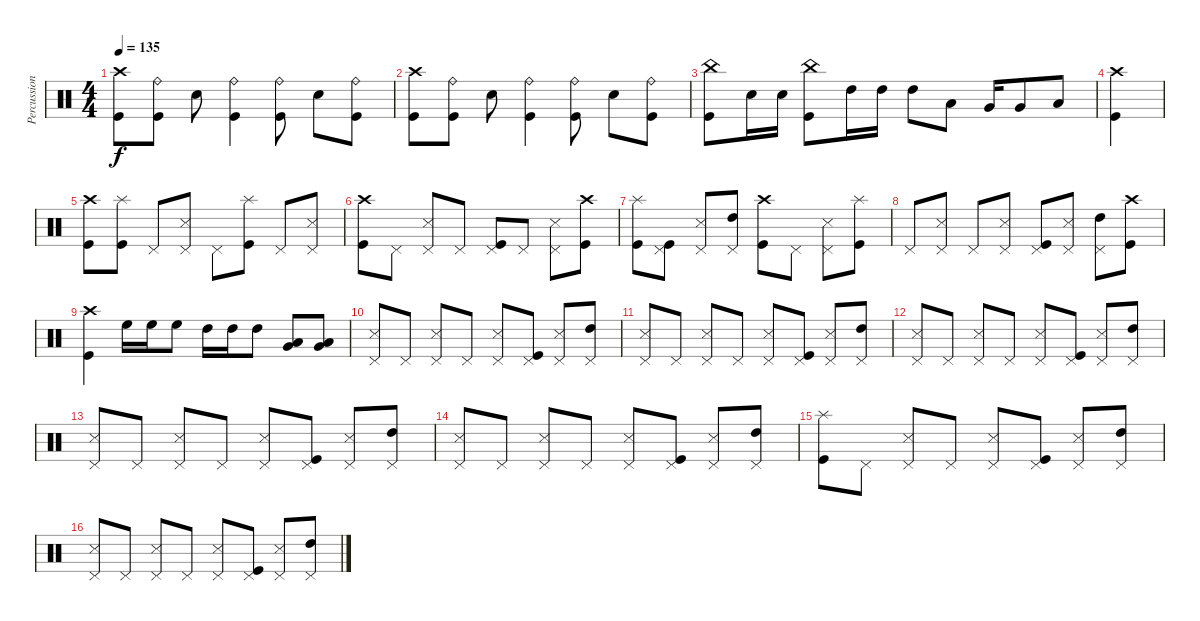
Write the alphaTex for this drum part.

\track ("Percussion" "Percussion") {instrument percussion}
\staff {score}
\articulation defaults
\ts (4 4)
\tempo 135
\clef neutral
\ks c
("Crash high (hit)" "Kick (hit)").8{dy f} ("Ride (bell)" "Kick (hit)").8 "Electric Snare (hit)".8 ("Ride (bell)" "Kick (hit)").4 ("Ride (bell)" "Kick (hit)").8 "Electric Snare (hit)".8 ("Ride (bell)" "Kick (hit)").8 |
("Crash high (hit)" "Kick (hit)").8 ("Ride (bell)" "Kick (hit)").8 "Electric Snare (hit)".8 ("Ride (bell)" "Kick (hit)").4 ("Ride (bell)" "Kick (hit)").8 "Electric Snare (hit)".8 ("Ride (bell)" "Kick (hit)").8 |
("China (hit)" "Kick (hit)").8 "Electric Snare (hit)".16 "Electric Snare (hit)".16 ("China (hit)" "Kick (hit)").8 "High Tom (hit)".16 "High Tom (hit)".16 "High Tom (hit)".8 "Low Tom (hit)".8 "Very Low Tom (hit)".16 "Very Low Tom (hit)".8 "Low Floor Tom (hit)".8 |
("Kick (hit)" "Crash high (hit)").4 |
("Kick (hit)" "Crash high (hit)").8 ("Kick (hit)" "Splash (hit)").8 "Pedal Hi-Hat (hit)".8 ("Snare (side stick) 3" "Pedal Hi-Hat (hit)").8 "Pedal Hi-Hat (hit)".8 ("Splash (hit)" "Kick (hit)").8 "Pedal Hi-Hat (hit)".8 ("Snare (side stick) 3" "Pedal Hi-Hat (hit)").8 |
("Crash high (hit)" "Kick (hit)").8 "Pedal Hi-Hat (hit)".8 ("Snare (side stick) 3" "Pedal Hi-Hat (hit)").8 "Pedal Hi-Hat (hit)".8 ("Kick (hit)" "Pedal Hi-Hat (hit)").8 "Pedal Hi-Hat (hit)".8 ("Snare (side stick) 3" "Pedal Hi-Hat (hit)").8 ("Crash high (hit)" "Kick (hit)").8 |
("Splash (hit)" "Kick (hit)").8 ("Pedal Hi-Hat (hit)" "Kick (hit)").8 ("Pedal Hi-Hat (hit)" "Snare (side stick) 3").8 ("Pedal Hi-Hat (hit)" "High Tom (hit)").8 ("Kick (hit)" "Crash high (hit)").8 "Pedal Hi-Hat (hit)".8 ("Pedal Hi-Hat (hit)" "Snare (side stick) 3").8 ("Kick (hit)" "Splash (hit)").8 |
"Pedal Hi-Hat (hit)".8 ("Pedal Hi-Hat (hit)" "Snare (side stick) 3").8 "Pedal Hi-Hat (hit)".8 ("Pedal Hi-Hat (hit)" "Snare (side stick) 3").8 ("Pedal Hi-Hat (hit)" "Kick (hit)").8 ("Pedal Hi-Hat (hit)" "Snare (side stick) 3").8 ("Pedal Hi-Hat (hit)" "High Tom (hit)").8 ("Kick (hit)" "Crash high (hit)").8 |
("Kick (hit)" "Crash high (hit)").4 "High Floor Tom (hit)".16 "High Floor Tom (hit)".16 "High Floor Tom (hit)".8 "High Tom (hit)".16 "High Tom (hit)".16 "High Tom (hit)".8 ("Very Low Tom (hit)" "Low Floor Tom (hit)").8 ("Very Low Tom (hit)" "Low Floor Tom (hit)").8 |
("Snare (side stick) 3" "Pedal Hi-Hat (hit)").8 "Pedal Hi-Hat (hit)".8 ("Snare (side stick) 3" "Pedal Hi-Hat (hit)").8 "Pedal Hi-Hat (hit)".8 ("Snare (side stick) 3" "Pedal Hi-Hat (hit)").8 ("Kick (hit)" "Pedal Hi-Hat (hit)").8 ("Snare (side stick) 3" "Pedal Hi-Hat (hit)").8 ("High Tom (hit)" "Pedal Hi-Hat (hit)").8 |
("Snare (side stick) 3" "Pedal Hi-Hat (hit)").8 "Pedal Hi-Hat (hit)".8 ("Snare (side stick) 3" "Pedal Hi-Hat (hit)").8 "Pedal Hi-Hat (hit)".8 ("Snare (side stick) 3" "Pedal Hi-Hat (hit)").8 ("Kick (hit)" "Pedal Hi-Hat (hit)").8 ("Snare (side stick) 3" "Pedal Hi-Hat (hit)").8 ("High Tom (hit)" "Pedal Hi-Hat (hit)").8 |
("Snare (side stick) 3" "Pedal Hi-Hat (hit)").8 "Pedal Hi-Hat (hit)".8 ("Snare (side stick) 3" "Pedal Hi-Hat (hit)").8 "Pedal Hi-Hat (hit)".8 ("Snare (side stick) 3" "Pedal Hi-Hat (hit)").8 ("Kick (hit)" "Pedal Hi-Hat (hit)").8 ("Snare (side stick) 3" "Pedal Hi-Hat (hit)").8 ("High Tom (hit)" "Pedal Hi-Hat (hit)").8 |
("Snare (side stick) 3" "Pedal Hi-Hat (hit)").8 "Pedal Hi-Hat (hit)".8 ("Snare (side stick) 3" "Pedal Hi-Hat (hit)").8 "Pedal Hi-Hat (hit)".8 ("Snare (side stick) 3" "Pedal Hi-Hat (hit)").8 ("Kick (hit)" "Pedal Hi-Hat (hit)").8 ("Snare (side stick) 3" "Pedal Hi-Hat (hit)").8 ("High Tom (hit)" "Pedal Hi-Hat (hit)").8 |
("Snare (side stick) 3" "Pedal Hi-Hat (hit)").8 "Pedal Hi-Hat (hit)".8 ("Snare (side stick) 3" "Pedal Hi-Hat (hit)").8 "Pedal Hi-Hat (hit)".8 ("Snare (side stick) 3" "Pedal Hi-Hat (hit)").8 ("Kick (hit)" "Pedal Hi-Hat (hit)").8 ("Snare (side stick) 3" "Pedal Hi-Hat (hit)").8 ("High Tom (hit)" "Pedal Hi-Hat (hit)").8 |
("Kick (hit)" "Splash (hit)").8 "Pedal Hi-Hat (hit)".8 ("Snare (side stick) 3" "Pedal Hi-Hat (hit)").8 "Pedal Hi-Hat (hit)".8 ("Snare (side stick) 3" "Pedal Hi-Hat (hit)").8 ("Kick (hit)" "Pedal Hi-Hat (hit)").8 ("Snare (side stick) 3" "Pedal Hi-Hat (hit)").8 ("High Tom (hit)" "Pedal Hi-Hat (hit)").8 |
("Snare (side stick) 3" "Pedal Hi-Hat (hit)").8 "Pedal Hi-Hat (hit)".8 ("Snare (side stick) 3" "Pedal Hi-Hat (hit)").8 "Pedal Hi-Hat (hit)".8 ("Snare (side stick) 3" "Pedal Hi-Hat (hit)").8 ("Kick (hit)" "Pedal Hi-Hat (hit)").8 ("Snare (side stick) 3" "Pedal Hi-Hat (hit)").8 ("High Tom (hit)" "Pedal Hi-Hat (hit)").8
